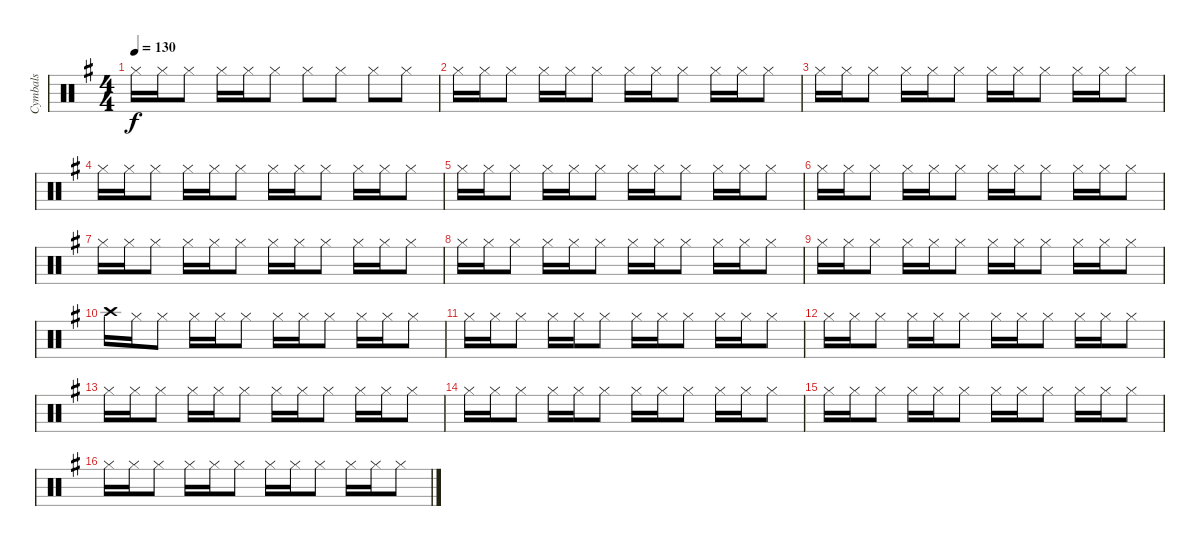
\track ("Cymbals" "Cymbals") {instrument percussion}
\staff {score}
\articulation defaults
\ts (4 4)
\tempo 130
\clef neutral
\ks g "Hi-Hat (closed)".16{dy f} "Hi-Hat (closed)".16 "Hi-Hat (closed)".8 "Hi-Hat (closed)".16 "Hi-Hat (closed)".16 "Hi-Hat (closed)".8 "Hi-Hat (closed)".8 "Hi-Hat (closed)".8 "Hi-Hat (closed)".8 "Hi-Hat (closed)".8
|
"Hi-Hat (closed)".16 "Hi-Hat (closed)".16 "Hi-Hat (closed)".8 "Hi-Hat (closed)".16 "Hi-Hat (closed)".16 "Hi-Hat (closed)".8 "Hi-Hat (closed)".16 "Hi-Hat (closed)".16 "Hi-Hat (closed)".8 "Hi-Hat (closed)".16 "Hi-Hat (closed)".16 "Hi-Hat (closed)".8 |
"Hi-Hat (closed)".16 "Hi-Hat (closed)".16 "Hi-Hat (closed)".8 "Hi-Hat (closed)".16 "Hi-Hat (closed)".16 "Hi-Hat (closed)".8 "Hi-Hat (closed)".16 "Hi-Hat (closed)".16 "Hi-Hat (closed)".8 "Hi-Hat (closed)".16 "Hi-Hat (closed)".16 "Hi-Hat (closed)".8 |
"Hi-Hat (closed)".16 "Hi-Hat (closed)".16 "Hi-Hat (closed)".8 "Hi-Hat (closed)".16 "Hi-Hat (closed)".16 "Hi-Hat (closed)".8 "Hi-Hat (closed)".16 "Hi-Hat (closed)".16 "Hi-Hat (closed)".8 "Hi-Hat (closed)".16 "Hi-Hat (closed)".16 "Hi-Hat (closed)".8 |
"Hi-Hat (closed)".16 "Hi-Hat (closed)".16 "Hi-Hat (closed)".8 "Hi-Hat (closed)".16 "Hi-Hat (closed)".16 "Hi-Hat (closed)".8 "Hi-Hat (closed)".16 "Hi-Hat (closed)".16 "Hi-Hat (closed)".8 "Hi-Hat (closed)".16 "Hi-Hat (closed)".16 "Hi-Hat (closed)".8 |
"Hi-Hat (closed)".16 "Hi-Hat (closed)".16 "Hi-Hat (closed)".8 "Hi-Hat (closed)".16 "Hi-Hat (closed)".16 "Hi-Hat (closed)".8 "Hi-Hat (closed)".16 "Hi-Hat (closed)".16 "Hi-Hat (closed)".8 "Hi-Hat (closed)".16 "Hi-Hat (closed)".16 "Hi-Hat (closed)".8 |
"Hi-Hat (closed)".16 "Hi-Hat (closed)".16 "Hi-Hat (closed)".8 "Hi-Hat (closed)".16 "Hi-Hat (closed)".16 "Hi-Hat (closed)".8 "Hi-Hat (closed)".16 "Hi-Hat (closed)".16 "Hi-Hat (closed)".8 "Hi-Hat (closed)".16 "Hi-Hat (closed)".16 "Hi-Hat (closed)".8 |
"Hi-Hat (closed)".16 "Hi-Hat (closed)".16 "Hi-Hat (closed)".8 "Hi-Hat (closed)".16 "Hi-Hat (closed)".16 "Hi-Hat (closed)".8 "Hi-Hat (closed)".16 "Hi-Hat (closed)".16 "Hi-Hat (closed)".8 "Hi-Hat (closed)".16 "Hi-Hat (closed)".16 "Hi-Hat (closed)".8 |
"Hi-Hat (closed)".16 "Hi-Hat (closed)".16 "Hi-Hat (closed)".8 "Hi-Hat (closed)".16 "Hi-Hat (closed)".16 "Hi-Hat (closed)".8 "Hi-Hat (closed)".16 "Hi-Hat (closed)".16 "Hi-Hat (closed)".8 "Hi-Hat (closed)".16 "Hi-Hat (closed)".16 "Hi-Hat (closed)".8 |
"Crash high (hit)".16 "Hi-Hat (closed)".16 "Hi-Hat (closed)".8 "Hi-Hat (closed)".16 "Hi-Hat (closed)".16 "Hi-Hat (closed)".8 "Hi-Hat (closed)".16 "Hi-Hat (closed)".16 "Hi-Hat (closed)".8 "Hi-Hat (closed)".16 "Hi-Hat (closed)".16 "Hi-Hat (closed)".8 |
"Hi-Hat (closed)".16 "Hi-Hat (closed)".16 "Hi-Hat (closed)".8 "Hi-Hat (closed)".16 "Hi-Hat (closed)".16 "Hi-Hat (closed)".8 "Hi-Hat (closed)".16 "Hi-Hat (closed)".16 "Hi-Hat (closed)".8 "Hi-Hat (closed)".16 "Hi-Hat (closed)".16 "Hi-Hat (closed)".8 |
"Hi-Hat (closed)".16 "Hi-Hat (closed)".16 "Hi-Hat (closed)".8 "Hi-Hat (closed)".16 "Hi-Hat (closed)".16 "Hi-Hat (closed)".8 "Hi-Hat (closed)".16 "Hi-Hat (closed)".16 "Hi-Hat (closed)".8 "Hi-Hat (closed)".16 "Hi-Hat (closed)".16 "Hi-Hat (closed)".8 |
"Hi-Hat (closed)".16 "Hi-Hat (closed)".16 "Hi-Hat (closed)".8 "Hi-Hat (closed)".16 "Hi-Hat (closed)".16 "Hi-Hat (closed)".8 "Hi-Hat (closed)".16 "Hi-Hat (closed)".16 "Hi-Hat (closed)".8 "Hi-Hat (closed)".16 "Hi-Hat (closed)".16 "Hi-Hat (closed)".8 |
"Hi-Hat (closed)".16 "Hi-Hat (closed)".16 "Hi-Hat (closed)".8 "Hi-Hat (closed)".16 "Hi-Hat (closed)".16 "Hi-Hat (closed)".8 "Hi-Hat (closed)".16 "Hi-Hat (closed)".16 "Hi-Hat (closed)".8 "Hi-Hat (closed)".16 "Hi-Hat (closed)".16 "Hi-Hat (closed)".8 |
"Hi-Hat (closed)".16 "Hi-Hat (closed)".16 "Hi-Hat (closed)".8 "Hi-Hat (closed)".16 "Hi-Hat (closed)".16 "Hi-Hat (closed)".8 "Hi-Hat (closed)".16 "Hi-Hat (closed)".16 "Hi-Hat (closed)".8 "Hi-Hat (closed)".16 "Hi-Hat (closed)".16 "Hi-Hat (closed)".8 |
"Hi-Hat (closed)".16 "Hi-Hat (closed)".16 "Hi-Hat (closed)".8 "Hi-Hat (closed)".16 "Hi-Hat (closed)".16 "Hi-Hat (closed)".8 "Hi-Hat (closed)".16 "Hi-Hat (closed)".16 "Hi-Hat (closed)".8 "Hi-Hat (closed)".16 "Hi-Hat (closed)".16 "Hi-Hat (closed)".8
